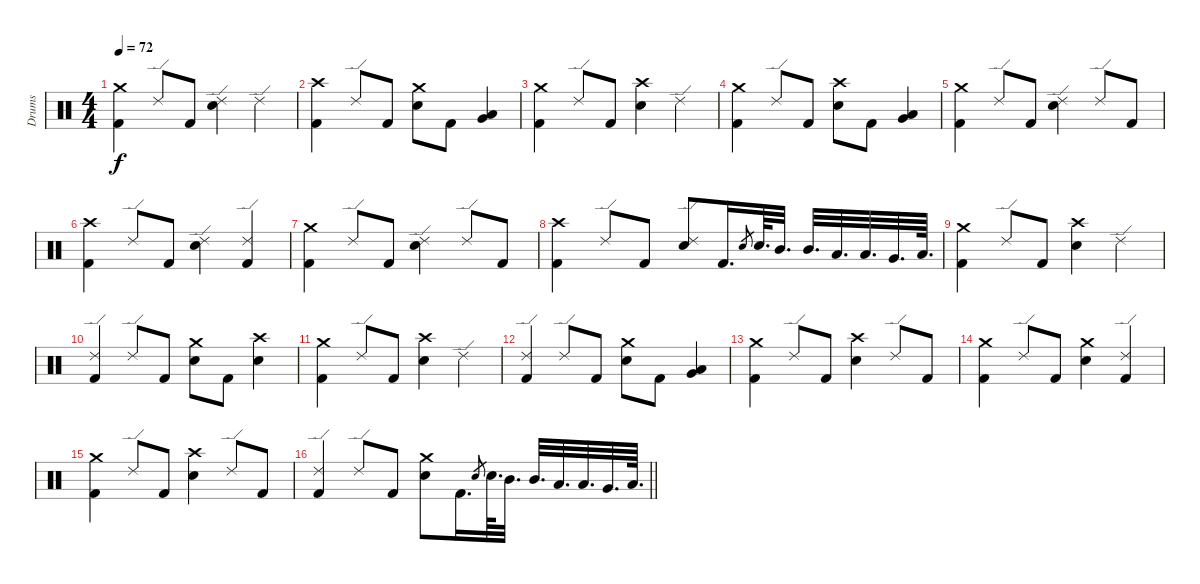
\track ("Drums" "Drums") {instrument percussion}
\staff {score}
\articulation defaults
\ts (4 4)
\tempo 72
\clef neutral
\ks c
("Crash medium (hit)" "Kick (hit) 2").4{dy f} "Ride (edge) 2".8 "Kick (hit) 2".8 ("Ride (edge) 2" "Snare (hit) 2").4 "Ride (edge) 2".4 |
("Crash high (hit)" "Kick (hit) 2").4 "Ride (edge) 2".8 "Kick (hit) 2".8 ("Crash medium (hit)" "Snare (hit) 2").8 "Kick (hit) 2".8 ("Low Tom (hit)" "Very Low Tom (hit)").4 |
("Crash medium (hit)" "Kick (hit) 2").4 "Ride (edge) 2".8 "Kick (hit) 2".8 ("Crash high (hit)" "Snare (hit) 2").4 "Ride (edge) 2".4 |
("Crash medium (hit)" "Kick (hit) 2").4 "Ride (edge) 2".8 "Kick (hit) 2".8 ("Crash high (hit)" "Snare (hit) 2").8 "Kick (hit) 2".8 ("Low Tom (hit)" "Very Low Tom (hit)").4 |
("Crash medium (hit)" "Kick (hit) 2").4 "Ride (edge) 2".8 "Kick (hit) 2".8 ("Ride (edge) 2" "Snare (hit) 2").4 "Ride (edge) 2".8 "Kick (hit) 2".8 |
("Crash high (hit)" "Kick (hit) 2").4 "Ride (edge) 2".8 "Kick (hit) 2".8 ("Ride (edge) 2" "Snare (hit) 2").4 ("Ride (edge) 2" "Kick (hit) 2").4 |
("Crash medium (hit)" "Kick (hit) 2").4 "Ride (edge) 2".8 "Kick (hit) 2".8 ("Ride (edge) 2" "Snare (hit) 2").4 "Ride (edge) 2".8 "Kick (hit) 2".8 |
("Crash high (hit)" "Kick (hit) 2").4 "Ride (edge) 2".8 "Kick (hit) 2".8 ("Ride (edge) 2" "Snare (hit) 2").8 "Kick (hit) 2".16{d} "Snare (hit) 2".8{gr} "Snare (hit) 2".64{d} "Mid Tom (hit)".32{d} "Mid Tom (hit)".32{d} "Low Tom (hit)".32{d} "Low Tom (hit)".32{d} "Very Low Tom (hit)".32{d} "Low Floor Tom (hit)".64{d} |
("Crash medium (hit)" "Kick (hit) 2").4 "Ride (edge) 2".8 "Kick (hit) 2".8 ("Crash high (hit)" "Snare (hit) 2").4 "Ride (edge) 2".4 |
("Ride (edge) 2" "Kick (hit) 2").4 "Ride (edge) 2".8 "Kick (hit) 2".8 ("Crash medium (hit)" "Snare (hit) 2").8 "Kick (hit) 2".8 ("Crash high (hit)" "Snare (hit) 2").4 |
("Crash medium (hit)" "Kick (hit) 2").4 "Ride (edge) 2".8 "Kick (hit) 2".8 ("Crash high (hit)" "Snare (hit) 2").4 "Ride (edge) 2".4 |
("Ride (edge) 2" "Kick (hit) 2").4 "Ride (edge) 2".8 "Kick (hit) 2".8 ("Crash medium (hit)" "Snare (hit) 2").8 "Kick (hit) 2".8 ("Very Low Tom (hit)" "Low Tom (hit)").4 |
("Crash medium (hit)" "Kick (hit) 2").4 "Ride (edge) 2".8 "Kick (hit) 2".8 ("Crash high (hit)" "Snare (hit) 2").4 "Ride (edge) 2".8 "Kick (hit) 2".8 |
("Crash medium (hit)" "Kick (hit) 2").4 "Ride (edge) 2".8 "Kick (hit) 2".8 ("Crash medium (hit)" "Snare (hit) 2").4 ("Ride (edge) 2" "Kick (hit) 2").4 |
("Crash medium (hit)" "Kick (hit) 2").4 "Ride (edge) 2".8 "Kick (hit) 2".8 ("Crash high (hit)" "Snare (hit) 2").4 "Ride (edge) 2".8 "Kick (hit) 2".8 |
\barLineRight lightlight
("Ride (edge) 2" "Kick (hit) 2").4 "Ride (edge) 2".8 "Kick (hit) 2".8 ("Crash medium (hit)" "Snare (hit) 2").8 "Kick (hit) 2".16{d} "Snare (hit) 2".8{gr} "Snare (hit) 2".64{d} "Mid Tom (hit)".32{d} "Mid Tom (hit)".32{d} "Low Tom (hit)".32{d} "Low Tom (hit)".32{d} "Very Low Tom (hit)".32{d} "Low Floor Tom (hit)".64{d}
